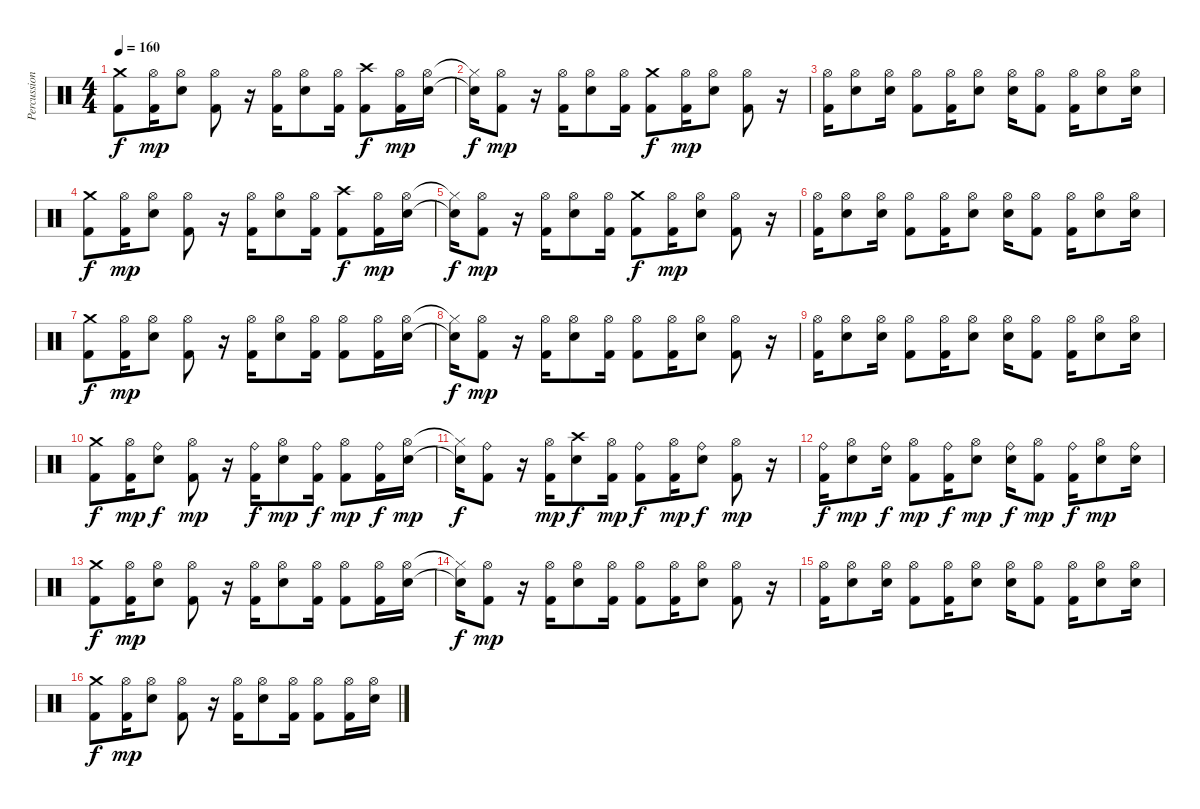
\track ("Percussions" "Percussion") {instrument percussion}
\staff {score}
\articulation defaults
\ts (4 4)
\tempo 160
\clef neutral
\ks c
("Crash medium (hit)" "Kick (hit) 2").8{dy f} ("Hi-Hat (open)" "Kick (hit) 2").16{dy mp} ("Hi-Hat (open)" "Electric Snare (hit)").8 ("Hi-Hat (open)" "Kick (hit) 2").8 r.16 ("Hi-Hat (open)" "Kick (hit) 2").16 ("Hi-Hat (open)" "Electric Snare (hit)").8 ("Hi-Hat (open)" "Kick (hit) 2").16 ("Crash high (hit)" "Kick (hit) 2").8{dy f} ("Hi-Hat (open)" "Kick (hit) 2").16{dy mp} ("Hi-Hat (open)" "Electric Snare (hit)").16 |
("Hi-Hat (closed)"{t} "Electric Snare (hit)"{t}).16{dy f} ("Hi-Hat (open)" "Kick (hit) 2").8{dy mp} r.16 ("Hi-Hat (open)" "Kick (hit) 2").16 ("Hi-Hat (open)" "Electric Snare (hit)").8 ("Hi-Hat (open)" "Kick (hit) 2").16 ("Crash medium (hit)" "Kick (hit) 2").8{dy f} ("Hi-Hat (open)" "Kick (hit) 2").16{dy mp} ("Hi-Hat (open)" "Electric Snare (hit)").8 ("Hi-Hat (open)" "Kick (hit) 2").8 r.16 |
("Hi-Hat (open)" "Kick (hit) 2").16 ("Hi-Hat (open)" "Electric Snare (hit)").8 ("Hi-Hat (open)" "Electric Snare (hit)").16 ("Hi-Hat (open)" "Kick (hit) 2").8 ("Hi-Hat (open)" "Kick (hit) 2").16 ("Hi-Hat (open)" "Electric Snare (hit)").8 ("Hi-Hat (open)" "Electric Snare (hit)").16 ("Hi-Hat (open)" "Kick (hit) 2").8 ("Hi-Hat (open)" "Kick (hit) 2").16 ("Hi-Hat (open)" "Electric Snare (hit)").8 ("Hi-Hat (open)" "Electric Snare (hit)").16 |
("Crash medium (hit)" "Kick (hit) 2").8{dy f} ("Hi-Hat (open)" "Kick (hit) 2").16{dy mp} ("Hi-Hat (open)" "Electric Snare (hit)").8 ("Hi-Hat (open)" "Kick (hit) 2").8 r.16 ("Hi-Hat (open)" "Kick (hit) 2").16 ("Hi-Hat (open)" "Electric Snare (hit)").8 ("Hi-Hat (open)" "Kick (hit) 2").16 ("Crash high (hit)" "Kick (hit) 2").8{dy f} ("Hi-Hat (open)" "Kick (hit) 2").16{dy mp} ("Hi-Hat (open)" "Electric Snare (hit)").16 |
("Hi-Hat (closed)"{t} "Electric Snare (hit)"{t}).16{dy f} ("Hi-Hat (open)" "Kick (hit) 2").8{dy mp} r.16 ("Hi-Hat (open)" "Kick (hit) 2").16 ("Hi-Hat (open)" "Electric Snare (hit)").8 ("Hi-Hat (open)" "Kick (hit) 2").16 ("Crash medium (hit)" "Kick (hit) 2").8{dy f} ("Hi-Hat (open)" "Kick (hit) 2").16{dy mp} ("Hi-Hat (open)" "Electric Snare (hit)").8 ("Hi-Hat (open)" "Kick (hit) 2").8 r.16 |
("Hi-Hat (open)" "Kick (hit) 2").16 ("Hi-Hat (open)" "Electric Snare (hit)").8 ("Hi-Hat (open)" "Electric Snare (hit)").16 ("Hi-Hat (open)" "Kick (hit) 2").8 ("Hi-Hat (open)" "Kick (hit) 2").16 ("Hi-Hat (open)" "Electric Snare (hit)").8 ("Hi-Hat (open)" "Electric Snare (hit)").16 ("Hi-Hat (open)" "Kick (hit) 2").8 ("Hi-Hat (open)" "Kick (hit) 2").16 ("Hi-Hat (open)" "Electric Snare (hit)").8 ("Hi-Hat (open)" "Electric Snare (hit)").16 |
("Crash medium (hit)" "Kick (hit) 2").8{dy f} ("Hi-Hat (open)" "Kick (hit) 2").16{dy mp} ("Hi-Hat (open)" "Electric Snare (hit)").8 ("Hi-Hat (open)" "Kick (hit) 2").8 r.16 ("Hi-Hat (open)" "Kick (hit) 2").16 ("Hi-Hat (open)" "Electric Snare (hit)").8 ("Hi-Hat (open)" "Kick (hit) 2").16 ("Hi-Hat (open)" "Kick (hit) 2").8 ("Hi-Hat (open)" "Kick (hit) 2").16 ("Hi-Hat (open)" "Electric Snare (hit)").16 |
("Hi-Hat (closed)"{t} "Electric Snare (hit)"{t}).16{dy f} ("Hi-Hat (open)" "Kick (hit) 2").8{dy mp} r.16 ("Hi-Hat (open)" "Kick (hit) 2").16 ("Hi-Hat (open)" "Electric Snare (hit)").8 ("Hi-Hat (open)" "Kick (hit) 2").16 ("Hi-Hat (open)" "Kick (hit) 2").8 ("Hi-Hat (open)" "Kick (hit) 2").16 ("Hi-Hat (open)" "Electric Snare (hit)").8 ("Hi-Hat (open)" "Kick (hit) 2").8 r.16 |
("Hi-Hat (open)" "Kick (hit) 2").16 ("Hi-Hat (open)" "Electric Snare (hit)").8 ("Hi-Hat (open)" "Electric Snare (hit)").16 ("Hi-Hat (open)" "Kick (hit) 2").8 ("Hi-Hat (open)" "Kick (hit) 2").16 ("Hi-Hat (open)" "Electric Snare (hit)").8 ("Hi-Hat (open)" "Electric Snare (hit)").16 ("Hi-Hat (open)" "Kick (hit) 2").8 ("Hi-Hat (open)" "Kick (hit) 2").16 ("Hi-Hat (open)" "Electric Snare (hit)").8 ("Hi-Hat (open)" "Electric Snare (hit)").16 |
("Crash medium (hit)" "Kick (hit) 2").8{dy f} ("Hi-Hat (open)" "Kick (hit) 2").16{dy mp} ("Ride (bell)" "Electric Snare (hit)").8{dy f} ("Hi-Hat (open)" "Kick (hit) 2").8{dy mp} r.16 ("Ride (bell)" "Kick (hit) 2").16{dy f} ("Hi-Hat (open)" "Electric Snare (hit)").8{dy mp} ("Ride (bell)" "Kick (hit) 2").16{dy f} ("Hi-Hat (open)" "Kick (hit) 2").8{dy mp} ("Ride (bell)" "Kick (hit) 2").16{dy f} ("Hi-Hat (open)" "Electric Snare (hit)").16{dy mp} |
("Hi-Hat (closed)"{t} "Electric Snare (hit)"{t}).16{dy f} ("Ride (bell)" "Kick (hit) 2").8 r.16 ("Hi-Hat (open)" "Kick (hit) 2").16{dy mp} ("Crash high (hit)" "Electric Snare (hit)").8{dy f} ("Hi-Hat (open)" "Kick (hit) 2").16{dy mp} ("Ride (bell)" "Kick (hit) 2").8{dy f} ("Hi-Hat (open)" "Kick (hit) 2").16{dy mp} ("Ride (bell)" "Electric Snare (hit)").8{dy f} ("Hi-Hat (open)" "Kick (hit) 2").8{dy mp} r.16 |
("Ride (bell)" "Kick (hit) 2").16{dy f} ("Hi-Hat (open)" "Electric Snare (hit)").8{dy mp} ("Ride (bell)" "Electric Snare (hit)").16{dy f} ("Hi-Hat (open)" "Kick (hit) 2").8{dy mp} ("Ride (bell)" "Kick (hit) 2").16{dy f} ("Hi-Hat (open)" "Electric Snare (hit)").8{dy mp} ("Ride (bell)" "Electric Snare (hit)").16{dy f} ("Hi-Hat (open)" "Kick (hit) 2").8{dy mp} ("Ride (bell)" "Kick (hit) 2").16{dy f} ("Hi-Hat (open)" "Electric Snare (hit)").8{dy mp} ("Ride (bell)" "Electric Snare (hit)").16 |
("Crash medium (hit)" "Kick (hit) 2").8{dy f} ("Hi-Hat (open)" "Kick (hit) 2").16{dy mp} ("Hi-Hat (open)" "Electric Snare (hit)").8 ("Hi-Hat (open)" "Kick (hit) 2").8 r.16 ("Hi-Hat (open)" "Kick (hit) 2").16 ("Hi-Hat (open)" "Electric Snare (hit)").8 ("Hi-Hat (open)" "Kick (hit) 2").16 ("Hi-Hat (open)" "Kick (hit) 2").8 ("Hi-Hat (open)" "Kick (hit) 2").16 ("Hi-Hat (open)" "Electric Snare (hit)").16 |
("Hi-Hat (closed)"{t} "Electric Snare (hit)"{t}).16{dy f} ("Hi-Hat (open)" "Kick (hit) 2").8{dy mp} r.16 ("Hi-Hat (open)" "Kick (hit) 2").16 ("Hi-Hat (open)" "Electric Snare (hit)").8 ("Hi-Hat (open)" "Kick (hit) 2").16 ("Hi-Hat (open)" "Kick (hit) 2").8 ("Hi-Hat (open)" "Kick (hit) 2").16 ("Hi-Hat (open)" "Electric Snare (hit)").8 ("Hi-Hat (open)" "Kick (hit) 2").8 r.16 |
("Hi-Hat (open)" "Kick (hit) 2").16 ("Hi-Hat (open)" "Electric Snare (hit)").8 ("Hi-Hat (open)" "Electric Snare (hit)").16 ("Hi-Hat (open)" "Kick (hit) 2").8 ("Hi-Hat (open)" "Kick (hit) 2").16 ("Hi-Hat (open)" "Electric Snare (hit)").8 ("Hi-Hat (open)" "Electric Snare (hit)").16 ("Hi-Hat (open)" "Kick (hit) 2").8 ("Hi-Hat (open)" "Kick (hit) 2").16 ("Hi-Hat (open)" "Electric Snare (hit)").8 ("Hi-Hat (open)" "Electric Snare (hit)").16 |
("Crash medium (hit)" "Kick (hit) 2").8{dy f} ("Hi-Hat (open)" "Kick (hit) 2").16{dy mp} ("Hi-Hat (open)" "Electric Snare (hit)").8 ("Hi-Hat (open)" "Kick (hit) 2").8 r.16 ("Hi-Hat (open)" "Kick (hit) 2").16 ("Hi-Hat (open)" "Electric Snare (hit)").8 ("Hi-Hat (open)" "Kick (hit) 2").16 ("Hi-Hat (open)" "Kick (hit) 2").8 ("Hi-Hat (open)" "Kick (hit) 2").16 ("Hi-Hat (open)" "Electric Snare (hit)").16
